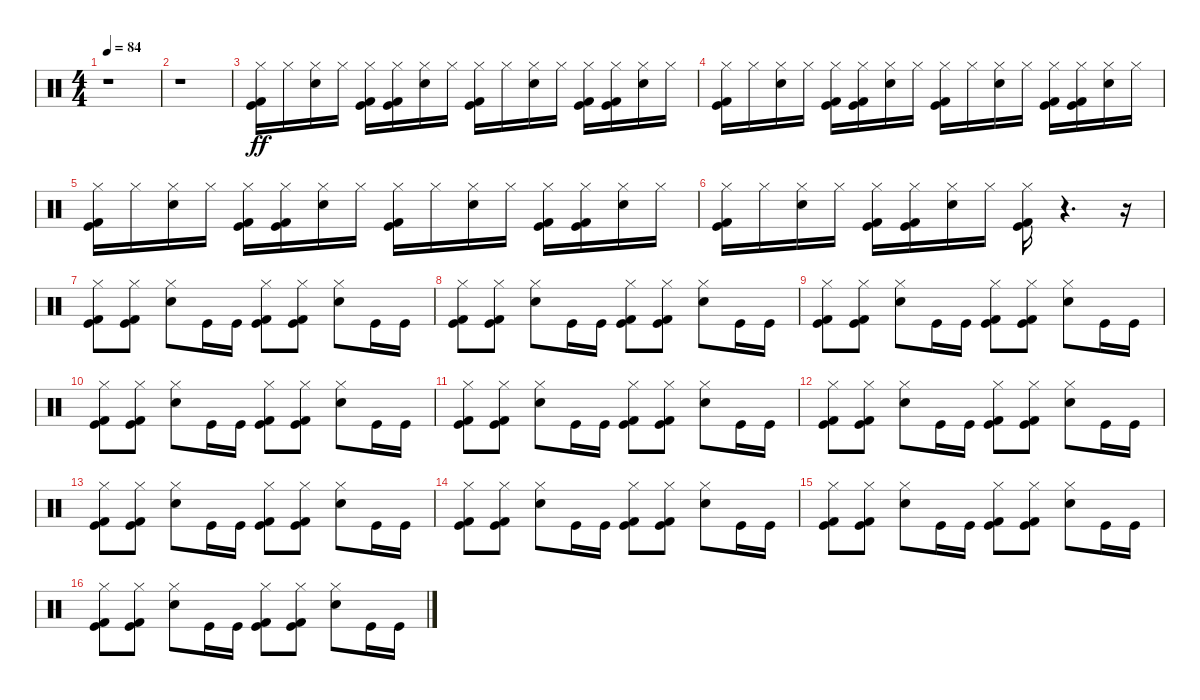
\track "" {instrument percussion}
\staff {score}
\articulation defaults
\ts (4 4)
\tempo 84
\clef neutral
\ks c
r.1{dy ff} |
r.1 |
("Kick (hit)" "Kick (hit) 2" "Hi-Hat (closed)").16 "Hi-Hat (closed)".16 ("Snare (hit) 2" "Hi-Hat (closed)").16 "Hi-Hat (closed)".16 ("Kick (hit)" "Kick (hit) 2" "Hi-Hat (closed)").16 ("Kick (hit)" "Kick (hit) 2" "Hi-Hat (closed)").16 ("Snare (hit) 2" "Hi-Hat (closed)").16 "Hi-Hat (closed)".16 ("Kick (hit)" "Kick (hit) 2" "Hi-Hat (closed)").16 "Hi-Hat (closed)".16 ("Snare (hit) 2" "Hi-Hat (closed)").16 "Hi-Hat (closed)".16 ("Kick (hit)" "Kick (hit) 2" "Hi-Hat (closed)").16 ("Kick (hit)" "Kick (hit) 2" "Hi-Hat (closed)").16 ("Snare (hit) 2" "Hi-Hat (closed)").16 "Hi-Hat (closed)".16 |
("Kick (hit)" "Kick (hit) 2" "Hi-Hat (closed)").16 "Hi-Hat (closed)".16 ("Snare (hit) 2" "Hi-Hat (closed)").16 "Hi-Hat (closed)".16 ("Kick (hit)" "Kick (hit) 2" "Hi-Hat (closed)").16 ("Kick (hit)" "Kick (hit) 2" "Hi-Hat (closed)").16 ("Snare (hit) 2" "Hi-Hat (closed)").16 "Hi-Hat (closed)".16 ("Kick (hit)" "Kick (hit) 2" "Hi-Hat (closed)").16 "Hi-Hat (closed)".16 ("Snare (hit) 2" "Hi-Hat (closed)").16 "Hi-Hat (closed)".16 ("Kick (hit)" "Kick (hit) 2" "Hi-Hat (closed)").16 ("Kick (hit)" "Kick (hit) 2" "Hi-Hat (closed)").16 ("Snare (hit) 2" "Hi-Hat (closed)").16 "Hi-Hat (closed)".16 |
("Kick (hit)" "Kick (hit) 2" "Hi-Hat (closed)").16 "Hi-Hat (closed)".16 ("Snare (hit) 2" "Hi-Hat (closed)").16 "Hi-Hat (closed)".16 ("Kick (hit)" "Kick (hit) 2" "Hi-Hat (closed)").16 ("Kick (hit)" "Kick (hit) 2" "Hi-Hat (closed)").16 ("Snare (hit) 2" "Hi-Hat (closed)").16 "Hi-Hat (closed)".16 ("Kick (hit)" "Kick (hit) 2" "Hi-Hat (closed)").16 "Hi-Hat (closed)".16 ("Snare (hit) 2" "Hi-Hat (closed)").16 "Hi-Hat (closed)".16 ("Kick (hit)" "Kick (hit) 2" "Hi-Hat (closed)").16 ("Kick (hit)" "Kick (hit) 2" "Hi-Hat (closed)").16 ("Snare (hit) 2" "Hi-Hat (closed)").16 "Hi-Hat (closed)".16 |
("Kick (hit)" "Kick (hit) 2" "Hi-Hat (closed)").16 "Hi-Hat (closed)".16 ("Snare (hit) 2" "Hi-Hat (closed)").16 "Hi-Hat (closed)".16 ("Kick (hit)" "Kick (hit) 2" "Hi-Hat (closed)").16 ("Kick (hit)" "Kick (hit) 2" "Hi-Hat (closed)").16 ("Snare (hit) 2" "Hi-Hat (closed)").16 "Hi-Hat (closed)".16 ("Kick (hit)" "Kick (hit) 2" "Hi-Hat (closed)").16 r.4{d} r.16 |
("Kick (hit)" "Kick (hit) 2" "Hi-Hat (closed)").8 ("Kick (hit)" "Kick (hit) 2" "Hi-Hat (closed)").8 ("Snare (hit) 2" "Hi-Hat (closed)").8 "Kick (hit)".16 "Kick (hit)".16 ("Kick (hit)" "Kick (hit) 2" "Hi-Hat (closed)").8 ("Kick (hit)" "Kick (hit) 2" "Hi-Hat (closed)").8 ("Snare (hit) 2" "Hi-Hat (closed)").8 "Kick (hit)".16 "Kick (hit)".16 |
("Kick (hit)" "Kick (hit) 2" "Hi-Hat (closed)").8 ("Kick (hit)" "Kick (hit) 2" "Hi-Hat (closed)").8 ("Snare (hit) 2" "Hi-Hat (closed)").8 "Kick (hit)".16 "Kick (hit)".16 ("Kick (hit)" "Kick (hit) 2" "Hi-Hat (closed)").8 ("Kick (hit)" "Kick (hit) 2" "Hi-Hat (closed)").8 ("Snare (hit) 2" "Hi-Hat (closed)").8 "Kick (hit)".16 "Kick (hit)".16 |
("Kick (hit)" "Kick (hit) 2" "Hi-Hat (closed)").8 ("Kick (hit)" "Kick (hit) 2" "Hi-Hat (closed)").8 ("Snare (hit) 2" "Hi-Hat (closed)").8 "Kick (hit)".16 "Kick (hit)".16 ("Kick (hit)" "Kick (hit) 2" "Hi-Hat (closed)").8 ("Kick (hit)" "Kick (hit) 2" "Hi-Hat (closed)").8 ("Snare (hit) 2" "Hi-Hat (closed)").8 "Kick (hit)".16 "Kick (hit)".16 |
("Kick (hit)" "Kick (hit) 2" "Hi-Hat (closed)").8 ("Kick (hit)" "Kick (hit) 2" "Hi-Hat (closed)").8 ("Snare (hit) 2" "Hi-Hat (closed)").8 "Kick (hit)".16 "Kick (hit)".16 ("Kick (hit)" "Kick (hit) 2" "Hi-Hat (closed)").8 ("Kick (hit)" "Kick (hit) 2" "Hi-Hat (closed)").8 ("Snare (hit) 2" "Hi-Hat (closed)").8 "Kick (hit)".16 "Kick (hit)".16 |
("Kick (hit)" "Kick (hit) 2" "Hi-Hat (closed)").8 ("Kick (hit)" "Kick (hit) 2" "Hi-Hat (closed)").8 ("Snare (hit) 2" "Hi-Hat (closed)").8 "Kick (hit)".16 "Kick (hit)".16 ("Kick (hit)" "Kick (hit) 2" "Hi-Hat (closed)").8 ("Kick (hit)" "Kick (hit) 2" "Hi-Hat (closed)").8 ("Snare (hit) 2" "Hi-Hat (closed)").8 "Kick (hit)".16 "Kick (hit)".16 |
("Kick (hit)" "Kick (hit) 2" "Hi-Hat (closed)").8 ("Kick (hit)" "Kick (hit) 2" "Hi-Hat (closed)").8 ("Snare (hit) 2" "Hi-Hat (closed)").8 "Kick (hit)".16 "Kick (hit)".16 ("Kick (hit)" "Kick (hit) 2" "Hi-Hat (closed)").8 ("Kick (hit)" "Kick (hit) 2" "Hi-Hat (closed)").8 ("Snare (hit) 2" "Hi-Hat (closed)").8 "Kick (hit)".16 "Kick (hit)".16 |
("Kick (hit)" "Kick (hit) 2" "Hi-Hat (closed)").8 ("Kick (hit)" "Kick (hit) 2" "Hi-Hat (closed)").8 ("Snare (hit) 2" "Hi-Hat (closed)").8 "Kick (hit)".16 "Kick (hit)".16 ("Kick (hit)" "Kick (hit) 2" "Hi-Hat (closed)").8 ("Kick (hit)" "Kick (hit) 2" "Hi-Hat (closed)").8 ("Snare (hit) 2" "Hi-Hat (closed)").8 "Kick (hit)".16 "Kick (hit)".16 |
("Kick (hit)" "Kick (hit) 2" "Hi-Hat (closed)").8 ("Kick (hit)" "Kick (hit) 2" "Hi-Hat (closed)").8 ("Snare (hit) 2" "Hi-Hat (closed)").8 "Kick (hit)".16 "Kick (hit)".16 ("Kick (hit)" "Kick (hit) 2" "Hi-Hat (closed)").8 ("Kick (hit)" "Kick (hit) 2" "Hi-Hat (closed)").8 ("Snare (hit) 2" "Hi-Hat (closed)").8 "Kick (hit)".16 "Kick (hit)".16 |
("Kick (hit)" "Kick (hit) 2" "Hi-Hat (closed)").8 ("Kick (hit)" "Kick (hit) 2" "Hi-Hat (closed)").8 ("Snare (hit) 2" "Hi-Hat (closed)").8 "Kick (hit)".16 "Kick (hit)".16 ("Kick (hit)" "Kick (hit) 2" "Hi-Hat (closed)").8 ("Kick (hit)" "Kick (hit) 2" "Hi-Hat (closed)").8 ("Snare (hit) 2" "Hi-Hat (closed)").8 "Kick (hit)".16 "Kick (hit)".16 |
("Kick (hit)" "Kick (hit) 2" "Hi-Hat (closed)").8 ("Kick (hit)" "Kick (hit) 2" "Hi-Hat (closed)").8 ("Snare (hit) 2" "Hi-Hat (closed)").8 "Kick (hit)".16 "Kick (hit)".16 ("Kick (hit)" "Kick (hit) 2" "Hi-Hat (closed)").8 ("Kick (hit)" "Kick (hit) 2" "Hi-Hat (closed)").8 ("Snare (hit) 2" "Hi-Hat (closed)").8 "Kick (hit)".16 "Kick (hit)".16
